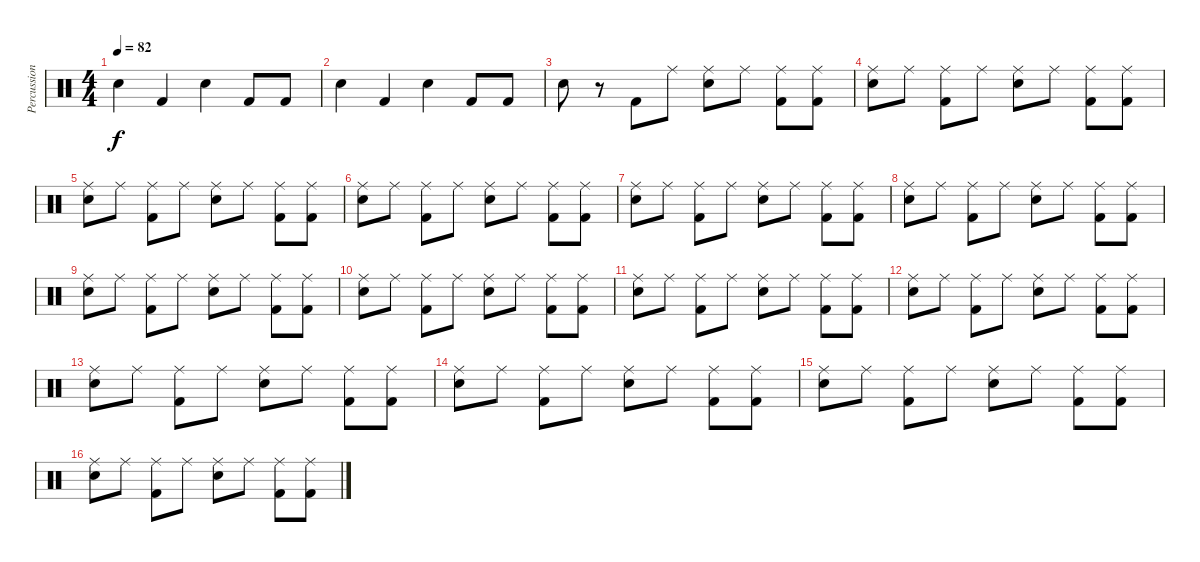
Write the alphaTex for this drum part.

\track ("Percussions" "Percussion") {instrument percussion}
\staff {score}
\articulation defaults
\ts (4 4)
\tempo 82
\clef neutral
\ks c "Snare (hit) 2".4{dy f} "Kick (hit) 2".4 "Snare (hit) 2".4 "Kick (hit) 2".8 "Kick (hit) 2".8
|
"Snare (hit) 2".4 "Kick (hit) 2".4 "Snare (hit) 2".4 "Kick (hit) 2".8 "Kick (hit) 2".8 |
"Snare (hit) 2".8 r.8 "Kick (hit) 2".8 "Ride (middle)".8 ("Ride (middle)" "Snare (hit) 2").8 "Ride (middle)".8 ("Ride (middle)" "Kick (hit) 2").8 ("Ride (middle)" "Kick (hit) 2").8 |
("Ride (middle)" "Snare (hit) 2").8 "Ride (middle)".8 ("Ride (middle)" "Kick (hit) 2").8 "Ride (middle)".8 ("Ride (middle)" "Snare (hit) 2").8 "Ride (middle)".8 ("Ride (middle)" "Kick (hit) 2").8 ("Ride (middle)" "Kick (hit) 2").8 |
("Ride (middle)" "Snare (hit) 2").8 "Ride (middle)".8 ("Ride (middle)" "Kick (hit) 2").8 "Ride (middle)".8 ("Ride (middle)" "Snare (hit) 2").8 "Ride (middle)".8 ("Ride (middle)" "Kick (hit) 2").8 ("Ride (middle)" "Kick (hit) 2").8 |
("Ride (middle)" "Snare (hit) 2").8 "Ride (middle)".8 ("Ride (middle)" "Kick (hit) 2").8 "Ride (middle)".8 ("Ride (middle)" "Snare (hit) 2").8 "Ride (middle)".8 ("Ride (middle)" "Kick (hit) 2").8 ("Ride (middle)" "Kick (hit) 2").8 |
("Ride (middle)" "Snare (hit) 2").8 "Ride (middle)".8 ("Ride (middle)" "Kick (hit) 2").8 "Ride (middle)".8 ("Ride (middle)" "Snare (hit) 2").8 "Ride (middle)".8 ("Ride (middle)" "Kick (hit) 2").8 ("Ride (middle)" "Kick (hit) 2").8 |
("Ride (middle)" "Snare (hit) 2").8 "Ride (middle)".8 ("Ride (middle)" "Kick (hit) 2").8 "Ride (middle)".8 ("Ride (middle)" "Snare (hit) 2").8 "Ride (middle)".8 ("Ride (middle)" "Kick (hit) 2").8 ("Ride (middle)" "Kick (hit) 2").8 |
("Ride (middle)" "Snare (hit) 2").8 "Ride (middle)".8 ("Ride (middle)" "Kick (hit) 2").8 "Ride (middle)".8 ("Ride (middle)" "Snare (hit) 2").8 "Ride (middle)".8 ("Ride (middle)" "Kick (hit) 2").8 ("Ride (middle)" "Kick (hit) 2").8 |
("Ride (middle)" "Snare (hit) 2").8 "Ride (middle)".8 ("Ride (middle)" "Kick (hit) 2").8 "Ride (middle)".8 ("Ride (middle)" "Snare (hit) 2").8 "Ride (middle)".8 ("Ride (middle)" "Kick (hit) 2").8 ("Ride (middle)" "Kick (hit) 2").8 |
("Ride (middle)" "Snare (hit) 2").8 "Ride (middle)".8 ("Ride (middle)" "Kick (hit) 2").8 "Ride (middle)".8 ("Ride (middle)" "Snare (hit) 2").8 "Ride (middle)".8 ("Ride (middle)" "Kick (hit) 2").8 ("Ride (middle)" "Kick (hit) 2").8 |
("Ride (middle)" "Snare (hit) 2").8 "Ride (middle)".8 ("Ride (middle)" "Kick (hit) 2").8 "Ride (middle)".8 ("Ride (middle)" "Snare (hit) 2").8 "Ride (middle)".8 ("Ride (middle)" "Kick (hit) 2").8 ("Ride (middle)" "Kick (hit) 2").8 |
("Ride (middle)" "Snare (hit) 2").8 "Ride (middle)".8 ("Ride (middle)" "Kick (hit) 2").8 "Ride (middle)".8 ("Ride (middle)" "Snare (hit) 2").8 "Ride (middle)".8 ("Ride (middle)" "Kick (hit) 2").8 ("Ride (middle)" "Kick (hit) 2").8 |
("Ride (middle)" "Snare (hit) 2").8 "Ride (middle)".8 ("Ride (middle)" "Kick (hit) 2").8 "Ride (middle)".8 ("Ride (middle)" "Snare (hit) 2").8 "Ride (middle)".8 ("Ride (middle)" "Kick (hit) 2").8 ("Ride (middle)" "Kick (hit) 2").8 |
("Ride (middle)" "Snare (hit) 2").8 "Ride (middle)".8 ("Ride (middle)" "Kick (hit) 2").8 "Ride (middle)".8 ("Ride (middle)" "Snare (hit) 2").8 "Ride (middle)".8 ("Ride (middle)" "Kick (hit) 2").8 ("Ride (middle)" "Kick (hit) 2").8 |
("Ride (middle)" "Snare (hit) 2").8 "Ride (middle)".8 ("Ride (middle)" "Kick (hit) 2").8 "Ride (middle)".8 ("Ride (middle)" "Snare (hit) 2").8 "Ride (middle)".8 ("Ride (middle)" "Kick (hit) 2").8 ("Ride (middle)" "Kick (hit) 2").8
